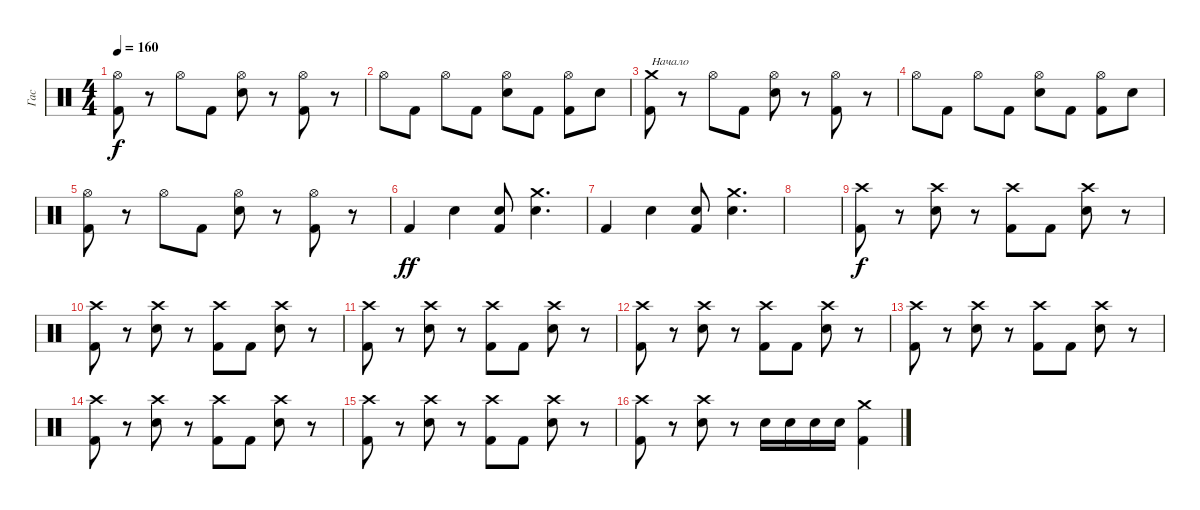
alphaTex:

\track ("Гас" "Гас") {instrument percussion}
\staff {score}
\articulation defaults
\ts (4 4)
\tempo 160
\clef neutral
\ks c
("Hi-Hat (open)" "Kick (hit) 2").8{dy f} r.8 "Hi-Hat (open)".8 "Kick (hit) 2".8 ("Hi-Hat (open)" "Electric Snare (hit)").8 r.8 ("Hi-Hat (open)" "Kick (hit) 2").8 r.8 |
"Hi-Hat (open)".8 "Kick (hit) 2".8 "Hi-Hat (open)".8 "Kick (hit) 2".8 ("Hi-Hat (open)" "Electric Snare (hit)").8 "Kick (hit) 2".8 ("Hi-Hat (open)" "Kick (hit) 2").8 "Electric Snare (hit)".8 |
("Crash medium (hit)" "Kick (hit) 2").8{txt "Начало"} r.8 "Hi-Hat (open)".8 "Kick (hit) 2".8 ("Hi-Hat (open)" "Electric Snare (hit)").8 r.8 ("Hi-Hat (open)" "Kick (hit) 2").8 r.8 |
"Hi-Hat (open)".8 "Kick (hit) 2".8 "Hi-Hat (open)".8 "Kick (hit) 2".8 ("Hi-Hat (open)" "Electric Snare (hit)").8 "Kick (hit) 2".8 ("Hi-Hat (open)" "Kick (hit) 2").8 "Electric Snare (hit)".8 |
("Hi-Hat (open)" "Kick (hit) 2").8 r.8 "Hi-Hat (open)".8 "Kick (hit) 2".8 ("Hi-Hat (open)" "Electric Snare (hit)").8 r.8 ("Hi-Hat (open)" "Kick (hit) 2").8 r.8 |
"Kick (hit) 2".4{dy ff} "Electric Snare (hit)".4 ("Electric Snare (hit)" "Kick (hit) 2").8 ("Crash medium (hit)" "Electric Snare (hit)").4{d} |
"Kick (hit) 2".4 "Electric Snare (hit)".4 ("Electric Snare (hit)" "Kick (hit) 2").8 ("Crash medium (hit)" "Electric Snare (hit)").4{d} |
|
("Crash high (hit)" "Kick (hit) 2").8{dy f} r.8 ("Crash high (hit)" "Electric Snare (hit)").8 r.8 ("Crash high (hit)" "Kick (hit) 2").8 "Kick (hit) 2".8 ("Crash high (hit)" "Electric Snare (hit)").8 r.8 |
("Crash high (hit)" "Kick (hit) 2").8 r.8 ("Crash high (hit)" "Electric Snare (hit)").8 r.8 ("Crash high (hit)" "Kick (hit) 2").8 "Kick (hit) 2".8 ("Crash high (hit)" "Electric Snare (hit)").8 r.8 |
("Crash high (hit)" "Kick (hit) 2").8 r.8 ("Crash high (hit)" "Electric Snare (hit)").8 r.8 ("Crash high (hit)" "Kick (hit) 2").8 "Kick (hit) 2".8 ("Crash high (hit)" "Electric Snare (hit)").8 r.8 |
("Crash high (hit)" "Kick (hit) 2").8 r.8 ("Crash high (hit)" "Electric Snare (hit)").8 r.8 ("Crash high (hit)" "Kick (hit) 2").8 "Kick (hit) 2".8 ("Crash high (hit)" "Electric Snare (hit)").8 r.8 |
("Crash high (hit)" "Kick (hit) 2").8 r.8 ("Crash high (hit)" "Electric Snare (hit)").8 r.8 ("Crash high (hit)" "Kick (hit) 2").8 "Kick (hit) 2".8 ("Crash high (hit)" "Electric Snare (hit)").8 r.8 |
("Crash high (hit)" "Kick (hit) 2").8 r.8 ("Crash high (hit)" "Electric Snare (hit)").8 r.8 ("Crash high (hit)" "Kick (hit) 2").8 "Kick (hit) 2".8 ("Crash high (hit)" "Electric Snare (hit)").8 r.8 |
("Crash high (hit)" "Kick (hit) 2").8 r.8 ("Crash high (hit)" "Electric Snare (hit)").8 r.8 ("Crash high (hit)" "Kick (hit) 2").8 "Kick (hit) 2".8 ("Crash high (hit)" "Electric Snare (hit)").8 r.8 |
("Crash high (hit)" "Kick (hit) 2").8 r.8 ("Crash high (hit)" "Electric Snare (hit)").8 r.8 "Electric Snare (hit)".16 "Electric Snare (hit)".16 "Electric Snare (hit)".16 "Electric Snare (hit)".16 ("Crash medium (hit)" "Kick (hit) 2").4
